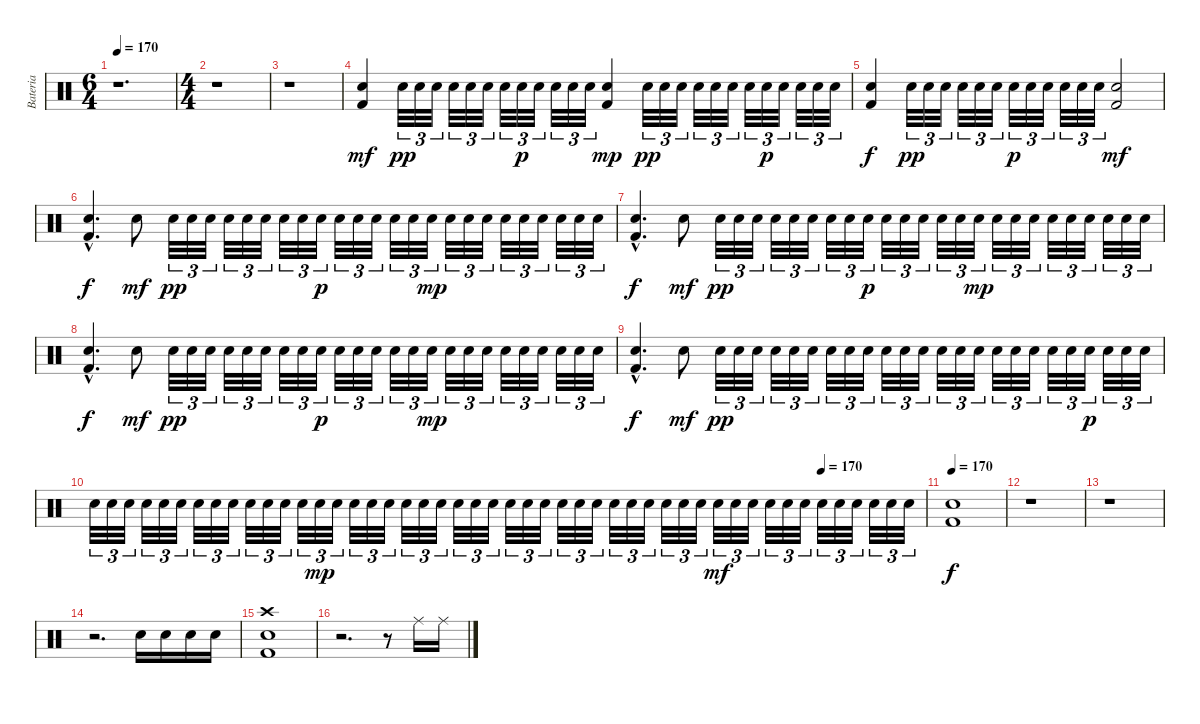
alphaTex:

\track ("Bateria" "Bateria") {instrument percussion}
\staff {score}
\articulation defaults
\ts (6 4)
\tempo 170
\clef neutral
\ks c
r.1{d dy f} |
\ts (4 4)
r.1 |
r.1 |
("Kick (hit) 2" "Snare (hit) 2").4{dy mf} "Snare (hit) 2".32{tu (3 2) dy pp} "Snare (hit) 2".32{tu (3 2)} "Snare (hit) 2".32{tu (3 2)} "Snare (hit) 2".32{tu (3 2)} "Snare (hit) 2".32{tu (3 2)} "Snare (hit) 2".32{tu (3 2)} "Snare (hit) 2".32{tu (3 2)} "Snare (hit) 2".32{tu (3 2) dy p} "Snare (hit) 2".32{tu (3 2)} "Snare (hit) 2".32{tu (3 2)} "Snare (hit) 2".32{tu (3 2)} "Snare (hit) 2".32{tu (3 2)} ("Kick (hit) 2" "Snare (hit) 2").4{dy mp} "Snare (hit) 2".32{tu (3 2) dy pp} "Snare (hit) 2".32{tu (3 2)} "Snare (hit) 2".32{tu (3 2)} "Snare (hit) 2".32{tu (3 2)} "Snare (hit) 2".32{tu (3 2)} "Snare (hit) 2".32{tu (3 2)} "Snare (hit) 2".32{tu (3 2)} "Snare (hit) 2".32{tu (3 2) dy p} "Snare (hit) 2".32{tu (3 2)} "Snare (hit) 2".32{tu (3 2)} "Snare (hit) 2".32{tu (3 2)} "Snare (hit) 2".32{tu (3 2)} |
("Kick (hit) 2" "Snare (hit) 2").4{dy f} "Snare (hit) 2".32{tu (3 2) dy pp} "Snare (hit) 2".32{tu (3 2)} "Snare (hit) 2".32{tu (3 2)} "Snare (hit) 2".32{tu (3 2)} "Snare (hit) 2".32{tu (3 2)} "Snare (hit) 2".32{tu (3 2)} "Snare (hit) 2".32{tu (3 2) dy p} "Snare (hit) 2".32{tu (3 2)} "Snare (hit) 2".32{tu (3 2)} "Snare (hit) 2".32{tu (3 2)} "Snare (hit) 2".32{tu (3 2)} "Snare (hit) 2".32{tu (3 2)} ("Kick (hit) 2" "Snare (hit) 2").2{dy mf} |
("Kick (hit) 2"{hac} "Snare (hit) 2"{hac}).4{d dy f} "Snare (hit) 2".8{dy mf} "Snare (hit) 2".32{tu (3 2) dy pp} "Snare (hit) 2".32{tu (3 2)} "Snare (hit) 2".32{tu (3 2)} "Snare (hit) 2".32{tu (3 2)} "Snare (hit) 2".32{tu (3 2)} "Snare (hit) 2".32{tu (3 2)} "Snare (hit) 2".32{tu (3 2)} "Snare (hit) 2".32{tu (3 2)} "Snare (hit) 2".32{tu (3 2) dy p} "Snare (hit) 2".32{tu (3 2)} "Snare (hit) 2".32{tu (3 2)} "Snare (hit) 2".32{tu (3 2)} "Snare (hit) 2".32{tu (3 2)} "Snare (hit) 2".32{tu (3 2)} "Snare (hit) 2".32{tu (3 2) dy mp} "Snare (hit) 2".32{tu (3 2)} "Snare (hit) 2".32{tu (3 2)} "Snare (hit) 2".32{tu (3 2)} "Snare (hit) 2".32{tu (3 2)} "Snare (hit) 2".32{tu (3 2)} "Snare (hit) 2".32{tu (3 2)} "Snare (hit) 2".32{tu (3 2)} "Snare (hit) 2".32{tu (3 2)} "Snare (hit) 2".32{tu (3 2)} |
("Kick (hit) 2"{hac} "Snare (hit) 2"{hac}).4{d dy f} "Snare (hit) 2".8{dy mf} "Snare (hit) 2".32{tu (3 2) dy pp} "Snare (hit) 2".32{tu (3 2)} "Snare (hit) 2".32{tu (3 2)} "Snare (hit) 2".32{tu (3 2)} "Snare (hit) 2".32{tu (3 2)} "Snare (hit) 2".32{tu (3 2)} "Snare (hit) 2".32{tu (3 2)} "Snare (hit) 2".32{tu (3 2)} "Snare (hit) 2".32{tu (3 2) dy p} "Snare (hit) 2".32{tu (3 2)} "Snare (hit) 2".32{tu (3 2)} "Snare (hit) 2".32{tu (3 2)} "Snare (hit) 2".32{tu (3 2)} "Snare (hit) 2".32{tu (3 2)} "Snare (hit) 2".32{tu (3 2) dy mp} "Snare (hit) 2".32{tu (3 2)} "Snare (hit) 2".32{tu (3 2)} "Snare (hit) 2".32{tu (3 2)} "Snare (hit) 2".32{tu (3 2)} "Snare (hit) 2".32{tu (3 2)} "Snare (hit) 2".32{tu (3 2)} "Snare (hit) 2".32{tu (3 2)} "Snare (hit) 2".32{tu (3 2)} "Snare (hit) 2".32{tu (3 2)} |
("Kick (hit) 2"{hac} "Snare (hit) 2"{hac}).4{d dy f} "Snare (hit) 2".8{dy mf} "Snare (hit) 2".32{tu (3 2) dy pp} "Snare (hit) 2".32{tu (3 2)} "Snare (hit) 2".32{tu (3 2)} "Snare (hit) 2".32{tu (3 2)} "Snare (hit) 2".32{tu (3 2)} "Snare (hit) 2".32{tu (3 2)} "Snare (hit) 2".32{tu (3 2)} "Snare (hit) 2".32{tu (3 2)} "Snare (hit) 2".32{tu (3 2) dy p} "Snare (hit) 2".32{tu (3 2)} "Snare (hit) 2".32{tu (3 2)} "Snare (hit) 2".32{tu (3 2)} "Snare (hit) 2".32{tu (3 2)} "Snare (hit) 2".32{tu (3 2)} "Snare (hit) 2".32{tu (3 2) dy mp} "Snare (hit) 2".32{tu (3 2)} "Snare (hit) 2".32{tu (3 2)} "Snare (hit) 2".32{tu (3 2)} "Snare (hit) 2".32{tu (3 2)} "Snare (hit) 2".32{tu (3 2)} "Snare (hit) 2".32{tu (3 2)} "Snare (hit) 2".32{tu (3 2)} "Snare (hit) 2".32{tu (3 2)} "Snare (hit) 2".32{tu (3 2)} |
("Kick (hit) 2"{hac} "Snare (hit) 2"{hac}).4{d dy f} "Snare (hit) 2".8{dy mf} "Snare (hit) 2".32{tu (3 2) dy pp} "Snare (hit) 2".32{tu (3 2)} "Snare (hit) 2".32{tu (3 2)} "Snare (hit) 2".32{tu (3 2)} "Snare (hit) 2".32{tu (3 2)} "Snare (hit) 2".32{tu (3 2)} "Snare (hit) 2".32{tu (3 2)} "Snare (hit) 2".32{tu (3 2)} "Snare (hit) 2".32{tu (3 2)} "Snare (hit) 2".32{tu (3 2)} "Snare (hit) 2".32{tu (3 2)} "Snare (hit) 2".32{tu (3 2)} "Snare (hit) 2".32{tu (3 2)} "Snare (hit) 2".32{tu (3 2)} "Snare (hit) 2".32{tu (3 2)} "Snare (hit) 2".32{tu (3 2)} "Snare (hit) 2".32{tu (3 2)} "Snare (hit) 2".32{tu (3 2)} "Snare (hit) 2".32{tu (3 2)} "Snare (hit) 2".32{tu (3 2)} "Snare (hit) 2".32{tu (3 2) dy p} "Snare (hit) 2".32{tu (3 2)} "Snare (hit) 2".32{tu (3 2)} "Snare (hit) 2".32{tu (3 2)} |
\tempo (170 0.875)
"Snare (hit) 2".32{tu (3 2)} "Snare (hit) 2".32{tu (3 2)} "Snare (hit) 2".32{tu (3 2)} "Snare (hit) 2".32{tu (3 2)} "Snare (hit) 2".32{tu (3 2)} "Snare (hit) 2".32{tu (3 2)} "Snare (hit) 2".32{tu (3 2)} "Snare (hit) 2".32{tu (3 2)} "Snare (hit) 2".32{tu (3 2)} "Snare (hit) 2".32{tu (3 2)} "Snare (hit) 2".32{tu (3 2)} "Snare (hit) 2".32{tu (3 2)} "Snare (hit) 2".32{tu (3 2)} "Snare (hit) 2".32{tu (3 2) dy mp} "Snare (hit) 2".32{tu (3 2)} "Snare (hit) 2".32{tu (3 2)} "Snare (hit) 2".32{tu (3 2)} "Snare (hit) 2".32{tu (3 2)} "Snare (hit) 2".32{tu (3 2)} "Snare (hit) 2".32{tu (3 2)} "Snare (hit) 2".32{tu (3 2)} "Snare (hit) 2".32{tu (3 2)} "Snare (hit) 2".32{tu (3 2)} "Snare (hit) 2".32{tu (3 2)} "Snare (hit) 2".32{tu (3 2)} "Snare (hit) 2".32{tu (3 2)} "Snare (hit) 2".32{tu (3 2)} "Snare (hit) 2".32{tu (3 2)} "Snare (hit) 2".32{tu (3 2)} "Snare (hit) 2".32{tu (3 2)} "Snare (hit) 2".32{tu (3 2)} "Snare (hit) 2".32{tu (3 2)} "Snare (hit) 2".32{tu (3 2)} "Snare (hit) 2".32{tu (3 2)} "Snare (hit) 2".32{tu (3 2)} "Snare (hit) 2".32{tu (3 2)} "Snare (hit) 2".32{tu (3 2) dy mf} "Snare (hit) 2".32{tu (3 2)} "Snare (hit) 2".32{tu (3 2)} "Snare (hit) 2".32{tu (3 2)} "Snare (hit) 2".32{tu (3 2)} "Snare (hit) 2".32{tu (3 2)} "Snare (hit) 2".32{tu (3 2)} "Snare (hit) 2".32{tu (3 2)} "Snare (hit) 2".32{tu (3 2)} "Snare (hit) 2".32{tu (3 2)} "Snare (hit) 2".32{tu (3 2)} "Snare (hit) 2".32{tu (3 2)} |
\tempo 170
("Kick (hit) 2" "Snare (hit) 2").1{dy f} |
r.1 |
r.1 |
r.2{d} "Snare (hit) 2".16 "Snare (hit) 2".16 "Snare (hit) 2".16 "Snare (hit) 2".16 |
("Crash high (hit)" "Kick (hit) 2" "Snare (hit) 2").1 |
r.2{d} r.8 "Ride (middle)".16 "Ride (middle)".16
